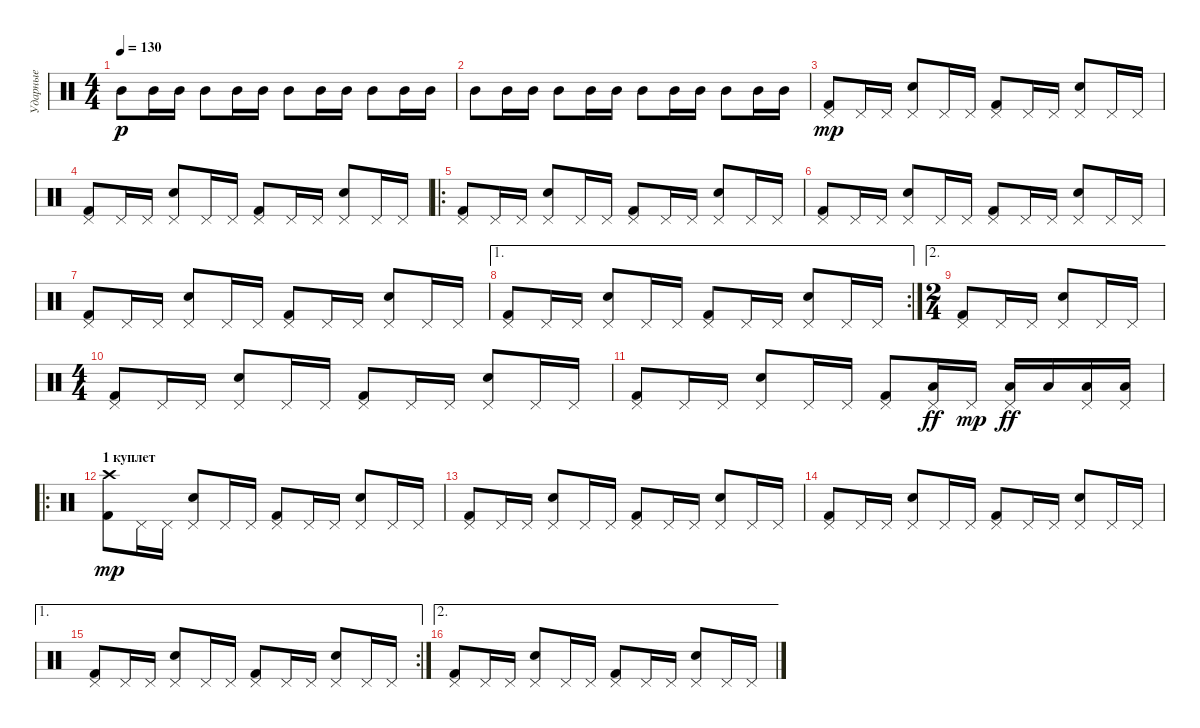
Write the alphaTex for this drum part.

\track ("Ударные" "Ударные") {instrument percussion}
\staff {score}
\articulation defaults
\ts (4 4)
\tempo 130
\clef neutral
\ks c "Mid Tom (hit)".8{dy p balance 4} "Mid Tom (hit)".16 "Mid Tom (hit)".16 "Mid Tom (hit)".8{balance 16} "Mid Tom (hit)".16 "Mid Tom (hit)".16 "Mid Tom (hit)".8 "Mid Tom (hit)".16 "Mid Tom (hit)".16 "Mid Tom (hit)".8 "Mid Tom (hit)".16 "Mid Tom (hit)".16
|
"Mid Tom (hit)".8 "Mid Tom (hit)".16 "Mid Tom (hit)".16 "Mid Tom (hit)".8 "Mid Tom (hit)".16 "Mid Tom (hit)".16 "Mid Tom (hit)".8 "Mid Tom (hit)".16 "Mid Tom (hit)".16 "Mid Tom (hit)".8 "Mid Tom (hit)".16 "Mid Tom (hit)".16 |
("Pedal Hi-Hat (hit)" "Kick (hit) 2").8{dy mp balance 8} "Pedal Hi-Hat (hit)".16 "Pedal Hi-Hat (hit)".16 ("Pedal Hi-Hat (hit)" "Snare (hit) 2").8 "Pedal Hi-Hat (hit)".16 "Pedal Hi-Hat (hit)".16 ("Pedal Hi-Hat (hit)" "Kick (hit) 2").8 "Pedal Hi-Hat (hit)".16 "Pedal Hi-Hat (hit)".16 ("Pedal Hi-Hat (hit)" "Snare (hit) 2").8 "Pedal Hi-Hat (hit)".16 "Pedal Hi-Hat (hit)".16 |
("Pedal Hi-Hat (hit)" "Kick (hit) 2").8 "Pedal Hi-Hat (hit)".16 "Pedal Hi-Hat (hit)".16 ("Pedal Hi-Hat (hit)" "Snare (hit) 2").8 "Pedal Hi-Hat (hit)".16 "Pedal Hi-Hat (hit)".16 ("Pedal Hi-Hat (hit)" "Kick (hit) 2").8 "Pedal Hi-Hat (hit)".16 "Pedal Hi-Hat (hit)".16 ("Pedal Hi-Hat (hit)" "Snare (hit) 2").8 "Pedal Hi-Hat (hit)".16 "Pedal Hi-Hat (hit)".16 |
\ro
("Pedal Hi-Hat (hit)" "Kick (hit) 2").8 "Pedal Hi-Hat (hit)".16 "Pedal Hi-Hat (hit)".16 ("Pedal Hi-Hat (hit)" "Snare (hit) 2").8 "Pedal Hi-Hat (hit)".16 "Pedal Hi-Hat (hit)".16 ("Pedal Hi-Hat (hit)" "Kick (hit) 2").8 "Pedal Hi-Hat (hit)".16 "Pedal Hi-Hat (hit)".16 ("Pedal Hi-Hat (hit)" "Snare (hit) 2").8 "Pedal Hi-Hat (hit)".16 "Pedal Hi-Hat (hit)".16 |
("Pedal Hi-Hat (hit)" "Kick (hit) 2").8 "Pedal Hi-Hat (hit)".16 "Pedal Hi-Hat (hit)".16 ("Pedal Hi-Hat (hit)" "Snare (hit) 2").8 "Pedal Hi-Hat (hit)".16 "Pedal Hi-Hat (hit)".16 ("Pedal Hi-Hat (hit)" "Kick (hit) 2").8 "Pedal Hi-Hat (hit)".16 "Pedal Hi-Hat (hit)".16 ("Pedal Hi-Hat (hit)" "Snare (hit) 2").8 "Pedal Hi-Hat (hit)".16 "Pedal Hi-Hat (hit)".16 |
("Pedal Hi-Hat (hit)" "Kick (hit) 2").8 "Pedal Hi-Hat (hit)".16 "Pedal Hi-Hat (hit)".16 ("Pedal Hi-Hat (hit)" "Snare (hit) 2").8 "Pedal Hi-Hat (hit)".16 "Pedal Hi-Hat (hit)".16 ("Pedal Hi-Hat (hit)" "Kick (hit) 2").8 "Pedal Hi-Hat (hit)".16 "Pedal Hi-Hat (hit)".16 ("Pedal Hi-Hat (hit)" "Snare (hit) 2").8 "Pedal Hi-Hat (hit)".16 "Pedal Hi-Hat (hit)".16 |
\ae 1
\rc 2
("Pedal Hi-Hat (hit)" "Kick (hit) 2").8 "Pedal Hi-Hat (hit)".16 "Pedal Hi-Hat (hit)".16 ("Pedal Hi-Hat (hit)" "Snare (hit) 2").8 "Pedal Hi-Hat (hit)".16 "Pedal Hi-Hat (hit)".16 ("Pedal Hi-Hat (hit)" "Kick (hit) 2").8 "Pedal Hi-Hat (hit)".16 "Pedal Hi-Hat (hit)".16 ("Pedal Hi-Hat (hit)" "Snare (hit) 2").8 "Pedal Hi-Hat (hit)".16 "Pedal Hi-Hat (hit)".16 |
\ae 2
\ts (2 4)
("Pedal Hi-Hat (hit)" "Kick (hit) 2").8 "Pedal Hi-Hat (hit)".16 "Pedal Hi-Hat (hit)".16 ("Pedal Hi-Hat (hit)" "Snare (hit) 2").8 "Pedal Hi-Hat (hit)".16 "Pedal Hi-Hat (hit)".16 |
\ts (4 4)
("Pedal Hi-Hat (hit)" "Kick (hit) 2").8 "Pedal Hi-Hat (hit)".16 "Pedal Hi-Hat (hit)".16 ("Pedal Hi-Hat (hit)" "Snare (hit) 2").8 "Pedal Hi-Hat (hit)".16 "Pedal Hi-Hat (hit)".16 ("Pedal Hi-Hat (hit)" "Kick (hit) 2").8 "Pedal Hi-Hat (hit)".16 "Pedal Hi-Hat (hit)".16 ("Pedal Hi-Hat (hit)" "Snare (hit) 2").8 "Pedal Hi-Hat (hit)".16 "Pedal Hi-Hat (hit)".16 |
("Pedal Hi-Hat (hit)" "Kick (hit) 2").8 "Pedal Hi-Hat (hit)".16 "Pedal Hi-Hat (hit)".16 ("Pedal Hi-Hat (hit)" "Snare (hit) 2").8 "Pedal Hi-Hat (hit)".16 "Pedal Hi-Hat (hit)".16 ("Pedal Hi-Hat (hit)" "Kick (hit) 2").8 ("Pedal Hi-Hat (hit)" "Low Tom (hit)").16{dy ff} "Pedal Hi-Hat (hit)".16{dy mp} ("Pedal Hi-Hat (hit)" "Low Tom (hit)").16{dy ff} "Low Tom (hit)".16 ("Pedal Hi-Hat (hit)" "Low Tom (hit)").16 ("Pedal Hi-Hat (hit)" "Low Tom (hit)").16 |
\ro
\section ("" "1 куплет")
("Crash high (hit)" "Kick (hit) 2").8{dy mp} "Pedal Hi-Hat (hit)".16 "Pedal Hi-Hat (hit)".16 ("Pedal Hi-Hat (hit)" "Snare (hit) 2").8 "Pedal Hi-Hat (hit)".16 "Pedal Hi-Hat (hit)".16 ("Pedal Hi-Hat (hit)" "Kick (hit) 2").8 "Pedal Hi-Hat (hit)".16 "Pedal Hi-Hat (hit)".16 ("Pedal Hi-Hat (hit)" "Snare (hit) 2").8 "Pedal Hi-Hat (hit)".16 "Pedal Hi-Hat (hit)".16 |
("Pedal Hi-Hat (hit)" "Kick (hit) 2").8 "Pedal Hi-Hat (hit)".16 "Pedal Hi-Hat (hit)".16 ("Pedal Hi-Hat (hit)" "Snare (hit) 2").8 "Pedal Hi-Hat (hit)".16 "Pedal Hi-Hat (hit)".16 ("Pedal Hi-Hat (hit)" "Kick (hit) 2").8 "Pedal Hi-Hat (hit)".16 "Pedal Hi-Hat (hit)".16 ("Pedal Hi-Hat (hit)" "Snare (hit) 2").8 "Pedal Hi-Hat (hit)".16 "Pedal Hi-Hat (hit)".16 |
("Pedal Hi-Hat (hit)" "Kick (hit) 2").8 "Pedal Hi-Hat (hit)".16 "Pedal Hi-Hat (hit)".16 ("Pedal Hi-Hat (hit)" "Snare (hit) 2").8 "Pedal Hi-Hat (hit)".16 "Pedal Hi-Hat (hit)".16 ("Pedal Hi-Hat (hit)" "Kick (hit) 2").8 "Pedal Hi-Hat (hit)".16 "Pedal Hi-Hat (hit)".16 ("Pedal Hi-Hat (hit)" "Snare (hit) 2").8 "Pedal Hi-Hat (hit)".16 "Pedal Hi-Hat (hit)".16 |
\ae 1
\rc 2
("Pedal Hi-Hat (hit)" "Kick (hit) 2").8 "Pedal Hi-Hat (hit)".16 "Pedal Hi-Hat (hit)".16 ("Pedal Hi-Hat (hit)" "Snare (hit) 2").8 "Pedal Hi-Hat (hit)".16 "Pedal Hi-Hat (hit)".16 ("Pedal Hi-Hat (hit)" "Kick (hit) 2").8 "Pedal Hi-Hat (hit)".16 "Pedal Hi-Hat (hit)".16 ("Pedal Hi-Hat (hit)" "Snare (hit) 2").8 "Pedal Hi-Hat (hit)".16 "Pedal Hi-Hat (hit)".16 |
\ae 2
("Pedal Hi-Hat (hit)" "Kick (hit) 2").8 "Pedal Hi-Hat (hit)".16 "Pedal Hi-Hat (hit)".16 ("Pedal Hi-Hat (hit)" "Snare (hit) 2").8 "Pedal Hi-Hat (hit)".16 "Pedal Hi-Hat (hit)".16 ("Pedal Hi-Hat (hit)" "Kick (hit) 2").8 "Pedal Hi-Hat (hit)".16 "Pedal Hi-Hat (hit)".16 ("Pedal Hi-Hat (hit)" "Snare (hit) 2").8 "Pedal Hi-Hat (hit)".16 "Pedal Hi-Hat (hit)".16
